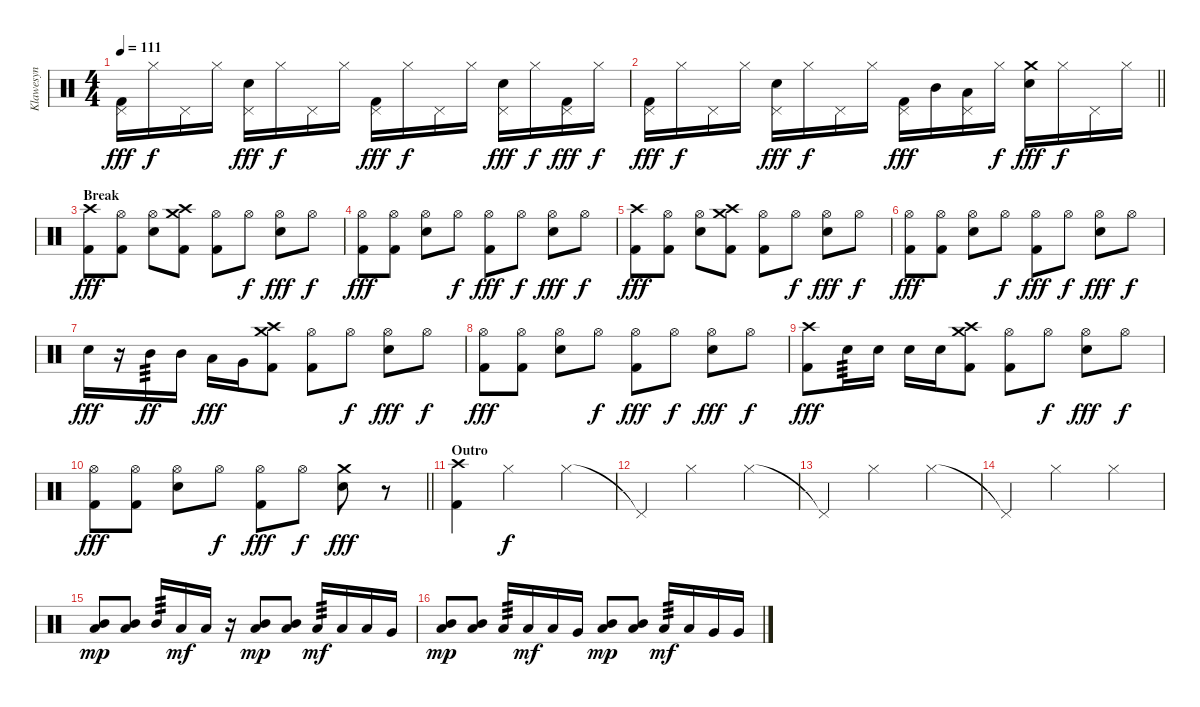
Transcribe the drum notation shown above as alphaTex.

\track ("Klawesyn" "Klawesyn") {instrument percussion}
\staff {score}
\articulation defaults
\ts (4 4)
\tempo 111
\clef neutral
\ks c
("Pedal Hi-Hat (hit)" "Kick (hit) 2").16{dy fff} "Hi-Hat (closed)".16{dy f} "Pedal Hi-Hat (hit)".16 "Hi-Hat (closed)".16 ("Pedal Hi-Hat (hit)" "Snare (hit) 2").16{dy fff} "Hi-Hat (closed)".16{dy f} "Pedal Hi-Hat (hit)".16 "Hi-Hat (closed)".16 ("Pedal Hi-Hat (hit)" "Kick (hit) 2").16{dy fff} "Hi-Hat (closed)".16{dy f} "Pedal Hi-Hat (hit)".16 "Hi-Hat (closed)".16 ("Pedal Hi-Hat (hit)" "Snare (hit) 2").16{dy fff} "Hi-Hat (closed)".16{dy f} ("Pedal Hi-Hat (hit)" "Kick (hit) 2").16{dy fff} "Hi-Hat (closed)".16{dy f} |
\barLineRight lightlight
("Pedal Hi-Hat (hit)" "Kick (hit) 2").16{dy fff} "Hi-Hat (closed)".16{dy f} "Pedal Hi-Hat (hit)".16 "Hi-Hat (closed)".16 ("Pedal Hi-Hat (hit)" "Snare (hit) 2").16{dy fff} "Hi-Hat (closed)".16{dy f} "Pedal Hi-Hat (hit)".16 "Hi-Hat (closed)".16 ("Pedal Hi-Hat (hit)" "Kick (hit) 2").16{dy fff} "Mid Tom (hit)".16 ("Pedal Hi-Hat (hit)" "Low Tom (hit)").16 "Hi-Hat (closed)".16{dy f} ("Crash medium (hit)" "Snare (hit) 2").16{dy fff} "Hi-Hat (closed)".16{dy f} "Pedal Hi-Hat (hit)".16 "Hi-Hat (closed)".16 |
\section ("" "Break")
("Crash high (hit)" "Kick (hit) 2").8{dy fff} ("Hi-Hat (open)" "Kick (hit) 2").8 ("Hi-Hat (open)" "Snare (hit) 2").8 ("Crash high (hit)" "Crash medium (hit)" "Kick (hit) 2").8 ("Hi-Hat (open)" "Kick (hit) 2").8 "Hi-Hat (open)".8{dy f} ("Hi-Hat (open)" "Snare (hit) 2").8{dy fff} "Hi-Hat (open)".8{dy f} |
("Hi-Hat (open)" "Kick (hit) 2").8{dy fff} ("Hi-Hat (open)" "Kick (hit) 2").8 ("Hi-Hat (open)" "Snare (hit) 2").8 "Hi-Hat (open)".8{dy f} ("Hi-Hat (open)" "Kick (hit) 2").8{dy fff} "Hi-Hat (open)".8{dy f} ("Hi-Hat (open)" "Snare (hit) 2").8{dy fff} "Hi-Hat (open)".8{dy f} |
("Crash high (hit)" "Kick (hit) 2").8{dy fff} ("Hi-Hat (open)" "Kick (hit) 2").8 ("Hi-Hat (open)" "Snare (hit) 2").8 ("Crash high (hit)" "Crash medium (hit)" "Kick (hit) 2").8 ("Hi-Hat (open)" "Kick (hit) 2").8 "Hi-Hat (open)".8{dy f} ("Hi-Hat (open)" "Snare (hit) 2").8{dy fff} "Hi-Hat (open)".8{dy f} |
("Hi-Hat (open)" "Kick (hit) 2").8{dy fff} ("Hi-Hat (open)" "Kick (hit) 2").8 ("Hi-Hat (open)" "Snare (hit) 2").8 "Hi-Hat (open)".8{dy f} ("Hi-Hat (open)" "Kick (hit) 2").8{dy fff} "Hi-Hat (open)".8{dy f} ("Hi-Hat (open)" "Snare (hit) 2").8{dy fff} "Hi-Hat (open)".8{dy f} |
"Snare (hit) 2".16{dy fff} r.16 "Mid Tom (hit)".16{tp 3 dy ff} "Mid Tom (hit)".16 "Low Tom (hit)".16{dy fff} "Very Low Tom (hit)".16 ("Crash high (hit)" "Crash medium (hit)" "Kick (hit) 2").8 ("Hi-Hat (open)" "Kick (hit) 2").8 "Hi-Hat (open)".8{dy f} ("Hi-Hat (open)" "Snare (hit) 2").8{dy fff} "Hi-Hat (open)".8{dy f} |
("Hi-Hat (open)" "Kick (hit) 2").8{dy fff} ("Hi-Hat (open)" "Kick (hit) 2").8 ("Hi-Hat (open)" "Snare (hit) 2").8 "Hi-Hat (open)".8{dy f} ("Hi-Hat (open)" "Kick (hit) 2").8{dy fff} "Hi-Hat (open)".8{dy f} ("Hi-Hat (open)" "Snare (hit) 2").8{dy fff} "Hi-Hat (open)".8{dy f} |
("Crash high (hit)" "Kick (hit) 2").8{dy fff} "Snare (hit) 2".16{tp 3} "Snare (hit) 2".16 "Snare (hit) 2".16 "Snare (hit) 2".16 ("Crash high (hit)" "Crash medium (hit)" "Kick (hit) 2").8 ("Hi-Hat (open)" "Kick (hit) 2").8 "Hi-Hat (open)".8{dy f} ("Hi-Hat (open)" "Snare (hit) 2").8{dy fff} "Hi-Hat (open)".8{dy f} |
\barLineRight lightlight
("Hi-Hat (open)" "Kick (hit) 2").8{dy fff} ("Hi-Hat (open)" "Kick (hit) 2").8 ("Hi-Hat (open)" "Snare (hit) 2").8 "Hi-Hat (open)".8{dy f} ("Hi-Hat (open)" "Kick (hit) 2").8{dy fff} "Hi-Hat (open)".8{dy f} ("Crash medium (hit)" "Snare (hit) 2").8{dy fff} r.8 |
\section ("" "Outro")
("Crash high (hit)" "Kick (hit) 2").4 "Hi-Hat (closed)".2{dy f} "Hi-Hat (closed)".4 |
"Pedal Hi-Hat (hit)"{t}.4 "Hi-Hat (closed)".2 "Hi-Hat (closed)".4 |
"Pedal Hi-Hat (hit)"{t}.4 "Hi-Hat (closed)".2 "Hi-Hat (closed)".4 |
"Pedal Hi-Hat (hit)"{t}.4 "Hi-Hat (closed)".2 "Hi-Hat (closed)".4 |
("Mid Tom (hit)" "Low Tom (hit)").8{dy mp} ("Mid Tom (hit)" "Low Tom (hit)").8 "Mid Tom (hit)".16{tp 3} "Low Tom (hit)".16{dy mf} "Low Tom (hit)".16 r.16 ("Mid Tom (hit)" "Low Tom (hit)").8{dy mp} ("Mid Tom (hit)" "Low Tom (hit)").8 "Low Tom (hit)".16{tp 3 dy mf} "Low Tom (hit)".16 "Low Tom (hit)".16 "Very Low Tom (hit)".16 |
("Mid Tom (hit)" "Low Tom (hit)").8{dy mp} ("Mid Tom (hit)" "Low Tom (hit)").8 "Low Tom (hit)".16{tp 3} "Low Tom (hit)".16{dy mf} "Low Tom (hit)".16 "Very Low Tom (hit)".16 ("Mid Tom (hit)" "Low Tom (hit)").8{dy mp} ("Mid Tom (hit)" "Low Tom (hit)").8 "Low Tom (hit)".16{tp 3 dy mf} "Low Tom (hit)".16 "Very Low Tom (hit)".16 "Very Low Tom (hit)".16
